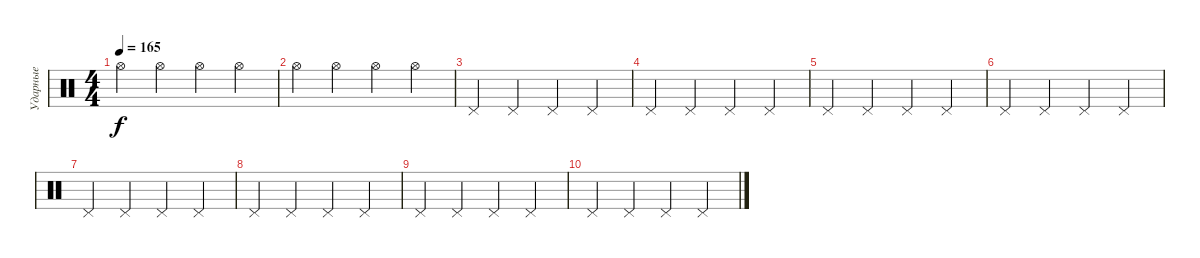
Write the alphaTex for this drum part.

\track ("Ударные" "Ударные") {instrument percussion}
\staff {score}
\articulation defaults
\ts (4 4)
\tempo 165
\clef neutral
\ks c "Hi-Hat (open)".4{dy f} "Hi-Hat (open)".4 "Hi-Hat (open)".4 "Hi-Hat (open)".4
|
"Hi-Hat (open)".4 "Hi-Hat (open)".4 "Hi-Hat (open)".4 "Hi-Hat (open)".4 |
"Pedal Hi-Hat (hit)".4 "Pedal Hi-Hat (hit)".4 "Pedal Hi-Hat (hit)".4 "Pedal Hi-Hat (hit)".4 |
"Pedal Hi-Hat (hit)".4 "Pedal Hi-Hat (hit)".4 "Pedal Hi-Hat (hit)".4 "Pedal Hi-Hat (hit)".4 |
"Pedal Hi-Hat (hit)".4 "Pedal Hi-Hat (hit)".4 "Pedal Hi-Hat (hit)".4 "Pedal Hi-Hat (hit)".4 |
"Pedal Hi-Hat (hit)".4 "Pedal Hi-Hat (hit)".4 "Pedal Hi-Hat (hit)".4 "Pedal Hi-Hat (hit)".4 |
"Pedal Hi-Hat (hit)".4 "Pedal Hi-Hat (hit)".4 "Pedal Hi-Hat (hit)".4 "Pedal Hi-Hat (hit)".4 |
"Pedal Hi-Hat (hit)".4 "Pedal Hi-Hat (hit)".4 "Pedal Hi-Hat (hit)".4 "Pedal Hi-Hat (hit)".4 |
"Pedal Hi-Hat (hit)".4 "Pedal Hi-Hat (hit)".4 "Pedal Hi-Hat (hit)".4 "Pedal Hi-Hat (hit)".4 |
"Pedal Hi-Hat (hit)".4 "Pedal Hi-Hat (hit)".4 "Pedal Hi-Hat (hit)".4 "Pedal Hi-Hat (hit)".4
